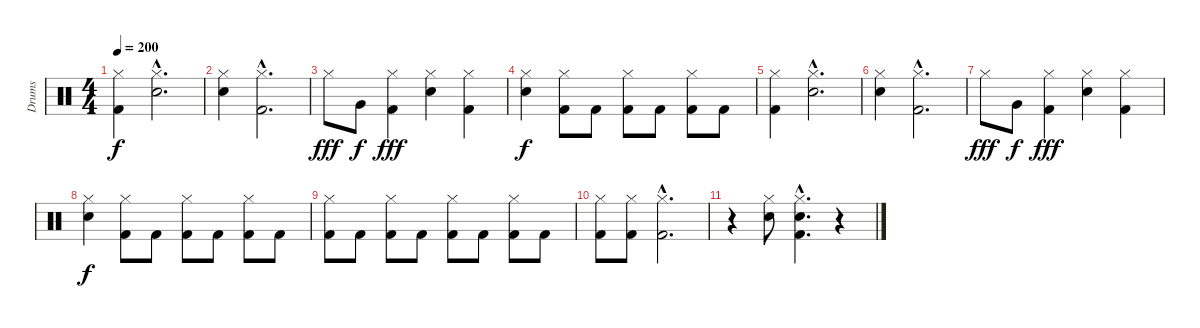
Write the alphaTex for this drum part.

\track ("Drums" "Drums") {instrument percussion}
\staff {score}
\articulation defaults
\ts (4 4)
\tempo 200
\clef neutral
\ks c
("Hi-Hat (closed)" "Kick (hit) 2").4{dy f} ("Hi-Hat (closed)"{hac} "Electric Snare (hit)"{hac}).2{d} |
("Hi-Hat (closed)" "Electric Snare (hit)").4 ("Hi-Hat (closed)"{hac} "Kick (hit) 2"{hac}).2{d} |
"Hi-Hat (closed)".8{dy fff} "Very Low Tom (hit)".8{dy f} ("Hi-Hat (closed)" "Kick (hit) 2").4{dy fff} ("Hi-Hat (closed)" "Electric Snare (hit)").4 ("Hi-Hat (closed)" "Kick (hit) 2").4 |
("Hi-Hat (closed)" "Electric Snare (hit)").4{dy f} ("Hi-Hat (closed)" "Kick (hit) 2").8 "Kick (hit) 2".8 ("Hi-Hat (closed)" "Kick (hit) 2").8 "Kick (hit) 2".8 ("Hi-Hat (closed)" "Kick (hit) 2").8 "Kick (hit) 2".8 |
("Hi-Hat (closed)" "Kick (hit) 2").4 ("Hi-Hat (closed)"{hac} "Electric Snare (hit)"{hac}).2{d} |
("Hi-Hat (closed)" "Electric Snare (hit)").4 ("Hi-Hat (closed)"{hac} "Kick (hit) 2"{hac}).2{d} |
"Hi-Hat (closed)".8{dy fff} "Very Low Tom (hit)".8{dy f} ("Hi-Hat (closed)" "Kick (hit) 2").4{dy fff} ("Hi-Hat (closed)" "Electric Snare (hit)").4 ("Hi-Hat (closed)" "Kick (hit) 2").4 |
("Hi-Hat (closed)" "Electric Snare (hit)").4{dy f} ("Hi-Hat (closed)" "Kick (hit) 2").8 "Kick (hit) 2".8 ("Hi-Hat (closed)" "Kick (hit) 2").8 "Kick (hit) 2".8 ("Hi-Hat (closed)" "Kick (hit) 2").8 "Kick (hit) 2".8 |
("Hi-Hat (closed)" "Kick (hit) 2").8 "Kick (hit) 2".8 ("Hi-Hat (closed)" "Kick (hit) 2").8 "Kick (hit) 2".8 ("Hi-Hat (closed)" "Kick (hit) 2").8 "Kick (hit) 2".8 ("Hi-Hat (closed)" "Kick (hit) 2").8 "Kick (hit) 2".8 |
("Hi-Hat (closed)" "Kick (hit) 2").8 ("Hi-Hat (closed)" "Kick (hit) 2").8 ("Hi-Hat (closed)"{hac} "Kick (hit) 2"{hac}).2{d} |
r.4 ("Hi-Hat (closed)" "Electric Snare (hit)").8 ("Hi-Hat (closed)"{hac} "Electric Snare (hit)"{hac} "Kick (hit) 2"{hac}).4{d} r.4
